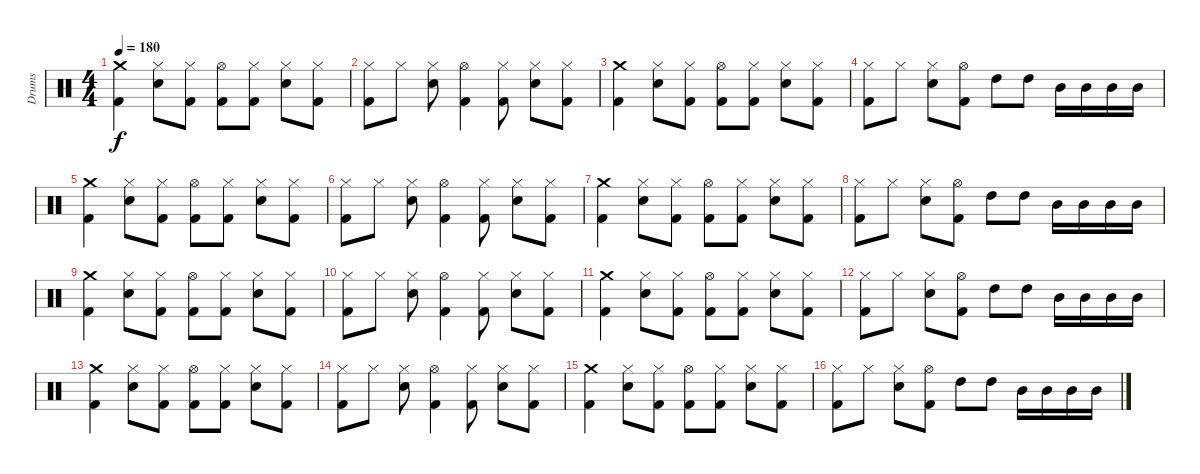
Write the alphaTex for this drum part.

\track ("Drums" "Drums") {instrument percussion}
\staff {score}
\articulation defaults
\ts (4 4)
\tempo 180
\clef neutral
\ks c
("Crash medium (hit)" "Kick (hit) 2").4{dy f} ("Hi-Hat (closed)" "Electric Snare (hit)").8 ("Hi-Hat (closed)" "Kick (hit) 2").8 ("Hi-Hat (open)" "Kick (hit) 2").8 ("Hi-Hat (closed)" "Kick (hit) 2").8 ("Electric Snare (hit)" "Hi-Hat (closed)").8 ("Hi-Hat (closed)" "Kick (hit) 2").8 |
("Hi-Hat (closed)" "Kick (hit) 2").8 "Hi-Hat (closed)".8 ("Hi-Hat (closed)" "Electric Snare (hit)").8 ("Hi-Hat (open)" "Kick (hit) 2").4 ("Hi-Hat (closed)" "Kick (hit) 2").8 ("Hi-Hat (closed)" "Electric Snare (hit)").8 ("Kick (hit) 2" "Hi-Hat (closed)").8 |
("Crash medium (hit)" "Kick (hit) 2").4 ("Hi-Hat (closed)" "Electric Snare (hit)").8 ("Hi-Hat (closed)" "Kick (hit) 2").8 ("Hi-Hat (open)" "Kick (hit) 2").8 ("Hi-Hat (closed)" "Kick (hit) 2").8 ("Electric Snare (hit)" "Hi-Hat (closed)").8 ("Hi-Hat (closed)" "Kick (hit) 2").8 |
("Hi-Hat (closed)" "Kick (hit) 2").8 "Hi-Hat (closed)".8 ("Hi-Hat (closed)" "Electric Snare (hit)").8 ("Hi-Hat (open)" "Kick (hit) 2").8 "High Tom (hit)".8 "High Tom (hit)".8 "Mid Tom (hit)".16 "Mid Tom (hit)".16 "Mid Tom (hit)".16 "Mid Tom (hit)".16 |
("Crash medium (hit)" "Kick (hit) 2").4 ("Hi-Hat (closed)" "Electric Snare (hit)").8 ("Hi-Hat (closed)" "Kick (hit) 2").8 ("Hi-Hat (open)" "Kick (hit) 2").8 ("Hi-Hat (closed)" "Kick (hit) 2").8 ("Electric Snare (hit)" "Hi-Hat (closed)").8 ("Hi-Hat (closed)" "Kick (hit) 2").8 |
("Hi-Hat (closed)" "Kick (hit) 2").8 "Hi-Hat (closed)".8 ("Hi-Hat (closed)" "Electric Snare (hit)").8 ("Hi-Hat (open)" "Kick (hit) 2").4 ("Hi-Hat (closed)" "Kick (hit) 2").8 ("Hi-Hat (closed)" "Electric Snare (hit)").8 ("Kick (hit) 2" "Hi-Hat (closed)").8 |
("Crash medium (hit)" "Kick (hit) 2").4 ("Hi-Hat (closed)" "Electric Snare (hit)").8 ("Hi-Hat (closed)" "Kick (hit) 2").8 ("Hi-Hat (open)" "Kick (hit) 2").8 ("Hi-Hat (closed)" "Kick (hit) 2").8 ("Electric Snare (hit)" "Hi-Hat (closed)").8 ("Hi-Hat (closed)" "Kick (hit) 2").8 |
("Hi-Hat (closed)" "Kick (hit) 2").8 "Hi-Hat (closed)".8 ("Hi-Hat (closed)" "Electric Snare (hit)").8 ("Hi-Hat (open)" "Kick (hit) 2").8 "High Tom (hit)".8 "High Tom (hit)".8 "Mid Tom (hit)".16 "Mid Tom (hit)".16 "Mid Tom (hit)".16 "Mid Tom (hit)".16 |
("Crash medium (hit)" "Kick (hit) 2").4 ("Hi-Hat (closed)" "Electric Snare (hit)").8 ("Hi-Hat (closed)" "Kick (hit) 2").8 ("Hi-Hat (open)" "Kick (hit) 2").8 ("Hi-Hat (closed)" "Kick (hit) 2").8 ("Electric Snare (hit)" "Hi-Hat (closed)").8 ("Hi-Hat (closed)" "Kick (hit) 2").8 |
("Hi-Hat (closed)" "Kick (hit) 2").8 "Hi-Hat (closed)".8 ("Hi-Hat (closed)" "Electric Snare (hit)").8 ("Hi-Hat (open)" "Kick (hit) 2").4 ("Hi-Hat (closed)" "Kick (hit) 2").8 ("Hi-Hat (closed)" "Electric Snare (hit)").8 ("Kick (hit) 2" "Hi-Hat (closed)").8 |
("Crash medium (hit)" "Kick (hit) 2").4 ("Hi-Hat (closed)" "Electric Snare (hit)").8 ("Hi-Hat (closed)" "Kick (hit) 2").8 ("Hi-Hat (open)" "Kick (hit) 2").8 ("Hi-Hat (closed)" "Kick (hit) 2").8 ("Electric Snare (hit)" "Hi-Hat (closed)").8 ("Hi-Hat (closed)" "Kick (hit) 2").8 |
("Hi-Hat (closed)" "Kick (hit) 2").8 "Hi-Hat (closed)".8 ("Hi-Hat (closed)" "Electric Snare (hit)").8 ("Hi-Hat (open)" "Kick (hit) 2").8 "High Tom (hit)".8 "High Tom (hit)".8 "Mid Tom (hit)".16 "Mid Tom (hit)".16 "Mid Tom (hit)".16 "Mid Tom (hit)".16 |
("Crash medium (hit)" "Kick (hit) 2").4 ("Hi-Hat (closed)" "Electric Snare (hit)").8 ("Hi-Hat (closed)" "Kick (hit) 2").8 ("Hi-Hat (open)" "Kick (hit) 2").8 ("Hi-Hat (closed)" "Kick (hit) 2").8 ("Electric Snare (hit)" "Hi-Hat (closed)").8 ("Hi-Hat (closed)" "Kick (hit) 2").8 |
("Hi-Hat (closed)" "Kick (hit) 2").8 "Hi-Hat (closed)".8 ("Hi-Hat (closed)" "Electric Snare (hit)").8 ("Hi-Hat (open)" "Kick (hit) 2").4 ("Hi-Hat (closed)" "Kick (hit) 2").8 ("Hi-Hat (closed)" "Electric Snare (hit)").8 ("Kick (hit) 2" "Hi-Hat (closed)").8 |
("Crash medium (hit)" "Kick (hit) 2").4 ("Hi-Hat (closed)" "Electric Snare (hit)").8 ("Hi-Hat (closed)" "Kick (hit) 2").8 ("Hi-Hat (open)" "Kick (hit) 2").8 ("Hi-Hat (closed)" "Kick (hit) 2").8 ("Electric Snare (hit)" "Hi-Hat (closed)").8 ("Hi-Hat (closed)" "Kick (hit) 2").8 |
("Hi-Hat (closed)" "Kick (hit) 2").8 "Hi-Hat (closed)".8 ("Hi-Hat (closed)" "Electric Snare (hit)").8 ("Hi-Hat (open)" "Kick (hit) 2").8 "High Tom (hit)".8 "High Tom (hit)".8 "Mid Tom (hit)".16 "Mid Tom (hit)".16 "Mid Tom (hit)".16 "Mid Tom (hit)".16
